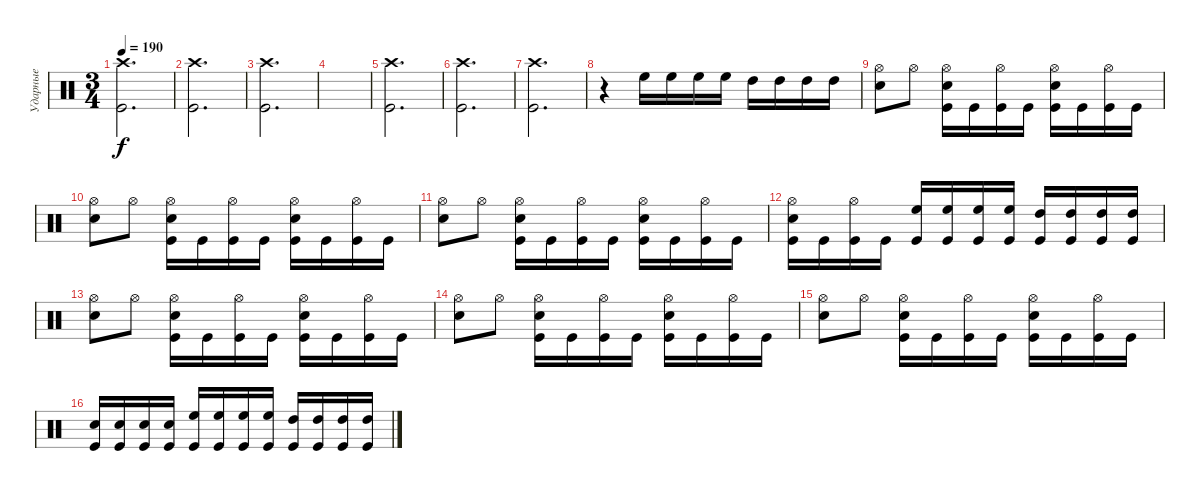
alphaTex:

\track ("Ударные" "Ударные") {instrument percussion}
\staff {score}
\articulation defaults
\ts (3 4)
\tempo 190
\clef neutral
\ks c
("Kick (hit)" "Crash high (hit)").2{d dy f} |
("Kick (hit)" "Crash high (hit)").2{d} |
("Kick (hit)" "Crash high (hit)").2{d} |
|
("Kick (hit)" "Crash high (hit)").2{d} |
("Kick (hit)" "Crash high (hit)").2{d} |
("Kick (hit)" "Crash high (hit)").2{d} |
r.4 "High Floor Tom (hit)".16 "High Floor Tom (hit)".16 "High Floor Tom (hit)".16 "High Floor Tom (hit)".16 "High Tom (hit)".16 "High Tom (hit)".16 "High Tom (hit)".16 "High Tom (hit)".16 |
("Hi-Hat (open)" "Snare (hit) 2").8 "Hi-Hat (open)".8 ("Kick (hit)" "Hi-Hat (open)" "Snare (hit) 2").16 "Kick (hit)".16 ("Kick (hit)" "Hi-Hat (open)").16 "Kick (hit)".16 ("Kick (hit)" "Hi-Hat (open)" "Snare (hit) 2").16 "Kick (hit)".16 ("Kick (hit)" "Hi-Hat (open)").16 "Kick (hit)".16 |
("Hi-Hat (open)" "Snare (hit) 2").8 "Hi-Hat (open)".8 ("Kick (hit)" "Hi-Hat (open)" "Snare (hit) 2").16 "Kick (hit)".16 ("Kick (hit)" "Hi-Hat (open)").16 "Kick (hit)".16 ("Kick (hit)" "Hi-Hat (open)" "Snare (hit) 2").16 "Kick (hit)".16 ("Kick (hit)" "Hi-Hat (open)").16 "Kick (hit)".16 |
("Hi-Hat (open)" "Snare (hit) 2").8 "Hi-Hat (open)".8 ("Kick (hit)" "Hi-Hat (open)" "Snare (hit) 2").16 "Kick (hit)".16 ("Kick (hit)" "Hi-Hat (open)").16 "Kick (hit)".16 ("Kick (hit)" "Hi-Hat (open)" "Snare (hit) 2").16 "Kick (hit)".16 ("Kick (hit)" "Hi-Hat (open)").16 "Kick (hit)".16 |
("Kick (hit)" "Hi-Hat (open)" "Snare (hit) 2").16 "Kick (hit)".16 ("Kick (hit)" "Hi-Hat (open)").16 "Kick (hit)".16 ("High Floor Tom (hit)" "Kick (hit)").16 ("High Floor Tom (hit)" "Kick (hit)").16 ("High Floor Tom (hit)" "Kick (hit)").16 ("High Floor Tom (hit)" "Kick (hit)").16 ("High Tom (hit)" "Kick (hit)").16 ("High Tom (hit)" "Kick (hit)").16 ("High Tom (hit)" "Kick (hit)").16 ("High Tom (hit)" "Kick (hit)").16 |
("Hi-Hat (open)" "Snare (hit) 2").8 "Hi-Hat (open)".8 ("Kick (hit)" "Hi-Hat (open)" "Snare (hit) 2").16 "Kick (hit)".16 ("Kick (hit)" "Hi-Hat (open)").16 "Kick (hit)".16 ("Kick (hit)" "Hi-Hat (open)" "Snare (hit) 2").16 "Kick (hit)".16 ("Kick (hit)" "Hi-Hat (open)").16 "Kick (hit)".16 |
("Hi-Hat (open)" "Snare (hit) 2").8 "Hi-Hat (open)".8 ("Kick (hit)" "Hi-Hat (open)" "Snare (hit) 2").16 "Kick (hit)".16 ("Kick (hit)" "Hi-Hat (open)").16 "Kick (hit)".16 ("Kick (hit)" "Hi-Hat (open)" "Snare (hit) 2").16 "Kick (hit)".16 ("Kick (hit)" "Hi-Hat (open)").16 "Kick (hit)".16 |
("Hi-Hat (open)" "Snare (hit) 2").8 "Hi-Hat (open)".8 ("Kick (hit)" "Hi-Hat (open)" "Snare (hit) 2").16 "Kick (hit)".16 ("Kick (hit)" "Hi-Hat (open)").16 "Kick (hit)".16 ("Kick (hit)" "Hi-Hat (open)" "Snare (hit) 2").16 "Kick (hit)".16 ("Kick (hit)" "Hi-Hat (open)").16 "Kick (hit)".16 |
("Snare (hit) 2" "Kick (hit)").16 ("Snare (hit) 2" "Kick (hit)").16 ("Snare (hit) 2" "Kick (hit)").16 ("Snare (hit) 2" "Kick (hit)").16 ("High Floor Tom (hit)" "Kick (hit)").16 ("High Floor Tom (hit)" "Kick (hit)").16 ("High Floor Tom (hit)" "Kick (hit)").16 ("High Floor Tom (hit)" "Kick (hit)").16 ("High Tom (hit)" "Kick (hit)").16 ("High Tom (hit)" "Kick (hit)").16 ("High Tom (hit)" "Kick (hit)").16 ("High Tom (hit)" "Kick (hit)").16
